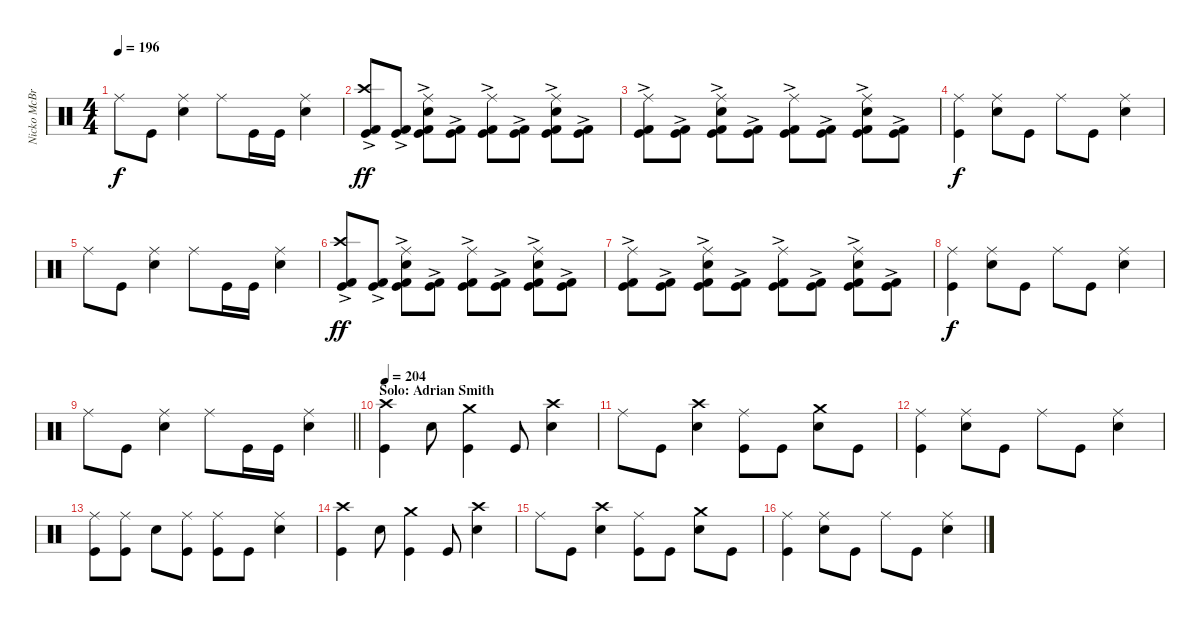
\track ("Nicko McBrain" "Nicko McBr") {instrument percussion}
\staff {score}
\articulation defaults
\ts (4 4)
\tempo 196
\clef neutral
\ks c "Ride (middle)".8{dy f} "Kick (hit)".8
("Ride (middle)" "Electric Snare (hit)").4 "Ride (middle)".8 "Kick (hit)".16 "Kick (hit)".16 ("Ride (middle)" "Electric Snare (hit)").4 |
("Crash high (hit)" "Kick (hit) 2" "Kick (hit)"{ac}).8{dy ff} ("Kick (hit) 2" "Kick (hit)"{ac}).8 ("Ride (middle)" "Electric Snare (hit)" "Kick (hit) 2" "Kick (hit)"{ac}).8 ("Kick (hit) 2" "Kick (hit)"{ac}).8 ("Ride (middle)" "Kick (hit) 2" "Kick (hit)"{ac}).8 ("Kick (hit) 2" "Kick (hit)"{ac}).8 ("Ride (middle)" "Electric Snare (hit)" "Kick (hit) 2" "Kick (hit)"{ac}).8 ("Kick (hit) 2" "Kick (hit)"{ac}).8 |
("Ride (middle)" "Kick (hit) 2" "Kick (hit)"{ac}).8 ("Kick (hit) 2" "Kick (hit)"{ac}).8 ("Ride (middle)" "Electric Snare (hit)" "Kick (hit) 2" "Kick (hit)"{ac}).8 ("Kick (hit) 2" "Kick (hit)"{ac}).8 ("Ride (middle)" "Kick (hit) 2" "Kick (hit)"{ac}).8 ("Kick (hit) 2" "Kick (hit)"{ac}).8 ("Ride (middle)" "Electric Snare (hit)" "Kick (hit) 2" "Kick (hit)"{ac}).8 ("Kick (hit) 2" "Kick (hit)"{ac}).8 |
("Ride (middle)" "Kick (hit)").4{dy f} ("Ride (middle)" "Electric Snare (hit)").8 "Kick (hit)".8 "Ride (middle)".8 "Kick (hit)".8 ("Ride (middle)" "Electric Snare (hit)").4 |
"Ride (middle)".8 "Kick (hit)".8 ("Ride (middle)" "Electric Snare (hit)").4 "Ride (middle)".8 "Kick (hit)".16 "Kick (hit)".16 ("Ride (middle)" "Electric Snare (hit)").4 |
("Crash high (hit)" "Kick (hit) 2" "Kick (hit)"{ac}).8{dy ff} ("Kick (hit) 2" "Kick (hit)"{ac}).8 ("Ride (middle)" "Electric Snare (hit)" "Kick (hit) 2" "Kick (hit)"{ac}).8 ("Kick (hit) 2" "Kick (hit)"{ac}).8 ("Ride (middle)" "Kick (hit) 2" "Kick (hit)"{ac}).8 ("Kick (hit) 2" "Kick (hit)"{ac}).8 ("Ride (middle)" "Electric Snare (hit)" "Kick (hit) 2" "Kick (hit)"{ac}).8 ("Kick (hit) 2" "Kick (hit)"{ac}).8 |
("Ride (middle)" "Kick (hit) 2" "Kick (hit)"{ac}).8 ("Kick (hit) 2" "Kick (hit)"{ac}).8 ("Ride (middle)" "Electric Snare (hit)" "Kick (hit) 2" "Kick (hit)"{ac}).8 ("Kick (hit) 2" "Kick (hit)"{ac}).8 ("Ride (middle)" "Kick (hit) 2" "Kick (hit)"{ac}).8 ("Kick (hit) 2" "Kick (hit)"{ac}).8 ("Ride (middle)" "Electric Snare (hit)" "Kick (hit) 2" "Kick (hit)"{ac}).8 ("Kick (hit) 2" "Kick (hit)"{ac}).8 |
("Ride (middle)" "Kick (hit)").4{dy f} ("Ride (middle)" "Electric Snare (hit)").8 "Kick (hit)".8 "Ride (middle)".8 "Kick (hit)".8 ("Ride (middle)" "Electric Snare (hit)").4 |
\barLineRight lightlight "Ride (middle)".8 "Kick (hit)".8
("Ride (middle)" "Electric Snare (hit)").4 "Ride (middle)".8 "Kick (hit)".16 "Kick (hit)".16 ("Ride (middle)" "Electric Snare (hit)").4 |
\section ("" "Solo: Adrian Smith")
\tempo 204
("Crash high (hit)" "Kick (hit)").4 "Electric Snare (hit)".8 ("Crash medium (hit)" "Kick (hit)").4 "Kick (hit)".8 ("Crash high (hit)" "Electric Snare (hit)").4 |
"Ride (middle)".8 "Kick (hit)".8 ("Crash high (hit)" "Electric Snare (hit)").4 ("Ride (middle)" "Kick (hit)").8 "Kick (hit)".8 ("Crash medium (hit)" "Electric Snare (hit)").8 "Kick (hit)".8 |
("Ride (middle)" "Kick (hit)").4 ("Ride (middle)" "Electric Snare (hit)").8 "Kick (hit)".8 "Ride (middle)".8 "Kick (hit)".8 ("Ride (middle)" "Electric Snare (hit)").4 |
("Ride (middle)" "Kick (hit)").8 ("Ride (middle)" "Kick (hit)").8 "Electric Snare (hit)".8 ("Ride (middle)" "Kick (hit)").8 ("Ride (middle)" "Kick (hit)").8 "Kick (hit)".8 ("Ride (middle)" "Electric Snare (hit)").4 |
("Crash high (hit)" "Kick (hit)").4 "Electric Snare (hit)".8 ("Crash medium (hit)" "Kick (hit)").4 "Kick (hit)".8 ("Crash high (hit)" "Electric Snare (hit)").4 |
"Ride (middle)".8 "Kick (hit)".8 ("Crash high (hit)" "Electric Snare (hit)").4 ("Ride (middle)" "Kick (hit)").8 "Kick (hit)".8 ("Crash medium (hit)" "Electric Snare (hit)").8 "Kick (hit)".8 |
("Ride (middle)" "Kick (hit)").4 ("Ride (middle)" "Electric Snare (hit)").8 "Kick (hit)".8 "Ride (middle)".8 "Kick (hit)".8 ("Ride (middle)" "Electric Snare (hit)").4
